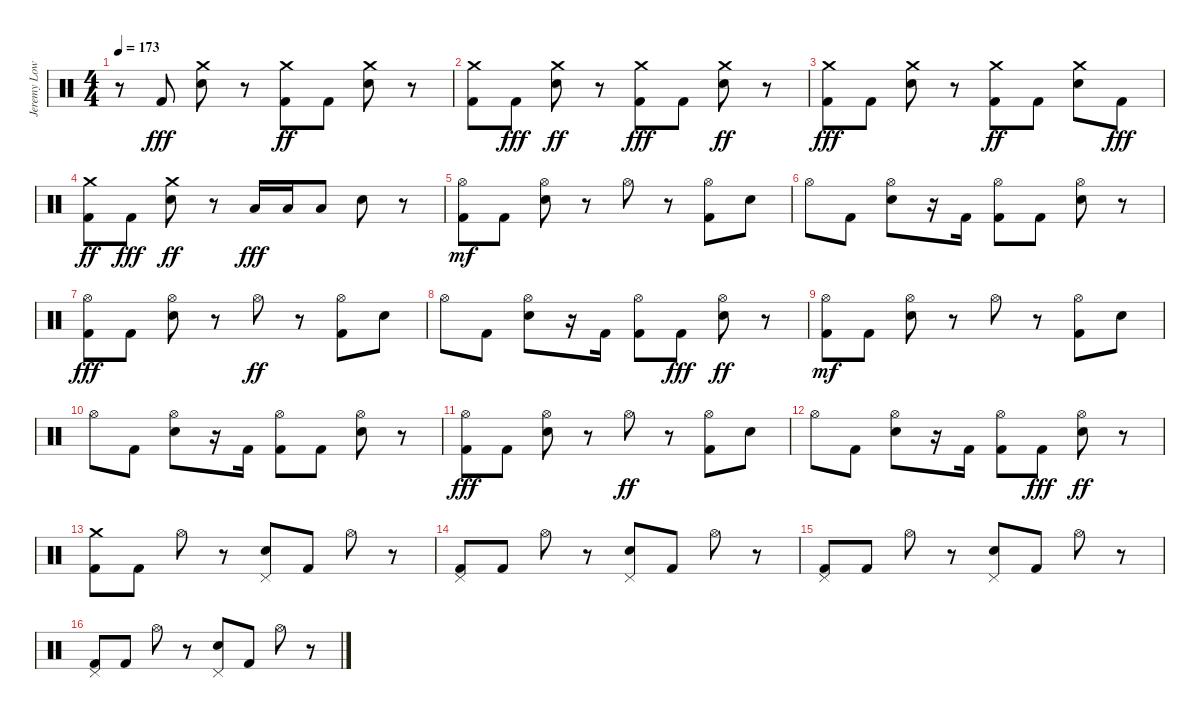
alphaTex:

\track ("Jeremy Lowery" "Jeremy Low") {instrument percussion}
\staff {score}
\articulation defaults
\ts (4 4)
\tempo 173
\clef neutral
\ks c
r.8{dy ff} "Kick (hit) 2".8{dy fff} ("Crash medium (hit)" "Electric Snare (hit)").8 r.8 ("Crash medium (hit)" "Kick (hit) 2").8{dy ff} "Kick (hit) 2".8 ("Crash medium (hit)" "Electric Snare (hit)").8 r.8 |
("Crash medium (hit)" "Kick (hit) 2").8 "Kick (hit) 2".8{dy fff} ("Crash medium (hit)" "Electric Snare (hit)").8{dy ff} r.8 ("Crash medium (hit)" "Kick (hit) 2").8{dy fff} "Kick (hit) 2".8 ("Crash medium (hit)" "Electric Snare (hit)").8{dy ff} r.8 |
("Crash medium (hit)" "Kick (hit) 2").8{dy fff} "Kick (hit) 2".8 ("Crash medium (hit)" "Electric Snare (hit)").8 r.8 ("Crash medium (hit)" "Kick (hit) 2").8{dy ff} "Kick (hit) 2".8 ("Crash medium (hit)" "Electric Snare (hit)").8 "Kick (hit) 2".8{dy fff} |
("Crash medium (hit)" "Kick (hit) 2").8{dy ff} "Kick (hit) 2".8{dy fff} ("Crash medium (hit)" "Electric Snare (hit)").8{dy ff} r.8 "Low Floor Tom (hit)".16{dy fff} "Low Floor Tom (hit)".16 "Low Floor Tom (hit)".8 "Electric Snare (hit)".8 r.8 |
("Hi-Hat (open)" "Kick (hit) 2").8{dy mf} "Kick (hit) 2".8 ("Hi-Hat (open)" "Snare (hit) 2").8 r.8 "Hi-Hat (open)".8 r.8 ("Hi-Hat (open)" "Kick (hit) 2").8 "Snare (hit) 2".8 |
"Hi-Hat (open)".8 "Kick (hit) 2".8 ("Hi-Hat (open)" "Snare (hit) 2").8 r.16 "Kick (hit) 2".16 ("Hi-Hat (open)" "Kick (hit) 2").8 "Kick (hit) 2".8 ("Hi-Hat (open)" "Snare (hit) 2").8 r.8 |
("Hi-Hat (open)" "Kick (hit) 2").8{dy fff} "Kick (hit) 2".8 ("Hi-Hat (open)" "Electric Snare (hit)").8 r.8 "Hi-Hat (open)".8{dy ff} r.8 ("Hi-Hat (open)" "Kick (hit) 2").8 "Electric Snare (hit)".8 |
"Hi-Hat (open)".8 "Kick (hit) 2".8 ("Hi-Hat (open)" "Electric Snare (hit)").8 r.16 "Kick (hit) 2".16 ("Hi-Hat (open)" "Kick (hit) 2").8 "Kick (hit) 2".8{dy fff} ("Hi-Hat (open)" "Electric Snare (hit)").8{dy ff} r.8 |
("Hi-Hat (open)" "Kick (hit) 2").8{dy mf} "Kick (hit) 2".8 ("Hi-Hat (open)" "Snare (hit) 2").8 r.8 "Hi-Hat (open)".8 r.8 ("Hi-Hat (open)" "Kick (hit) 2").8 "Snare (hit) 2".8 |
"Hi-Hat (open)".8 "Kick (hit) 2".8 ("Hi-Hat (open)" "Snare (hit) 2").8 r.16 "Kick (hit) 2".16 ("Hi-Hat (open)" "Kick (hit) 2").8 "Kick (hit) 2".8 ("Hi-Hat (open)" "Snare (hit) 2").8 r.8 |
("Hi-Hat (open)" "Kick (hit) 2").8{dy fff} "Kick (hit) 2".8 ("Hi-Hat (open)" "Electric Snare (hit)").8 r.8 "Hi-Hat (open)".8{dy ff} r.8 ("Hi-Hat (open)" "Kick (hit) 2").8 "Electric Snare (hit)".8 |
"Hi-Hat (open)".8 "Kick (hit) 2".8 ("Hi-Hat (open)" "Electric Snare (hit)").8 r.16 "Kick (hit) 2".16 ("Hi-Hat (open)" "Kick (hit) 2").8 "Kick (hit) 2".8{dy fff} ("Hi-Hat (open)" "Electric Snare (hit)").8{dy ff} r.8 |
("Crash medium (hit)" "Kick (hit) 2").8 "Kick (hit) 2".8 "Hi-Hat (open)".8 r.8 ("Pedal Hi-Hat (hit)" "Electric Snare (hit)").8 "Kick (hit) 2".8 "Hi-Hat (open)".8 r.8 |
("Pedal Hi-Hat (hit)" "Kick (hit) 2").8 "Kick (hit) 2".8 "Hi-Hat (open)".8 r.8 ("Pedal Hi-Hat (hit)" "Electric Snare (hit)").8 "Kick (hit) 2".8 "Hi-Hat (open)".8 r.8 |
("Pedal Hi-Hat (hit)" "Kick (hit) 2").8 "Kick (hit) 2".8 "Hi-Hat (open)".8 r.8 ("Pedal Hi-Hat (hit)" "Electric Snare (hit)").8 "Kick (hit) 2".8 "Hi-Hat (open)".8 r.8 |
("Pedal Hi-Hat (hit)" "Kick (hit) 2").8 "Kick (hit) 2".8 "Hi-Hat (open)".8 r.8 ("Pedal Hi-Hat (hit)" "Electric Snare (hit)").8 "Kick (hit) 2".8 "Hi-Hat (open)".8 r.8
